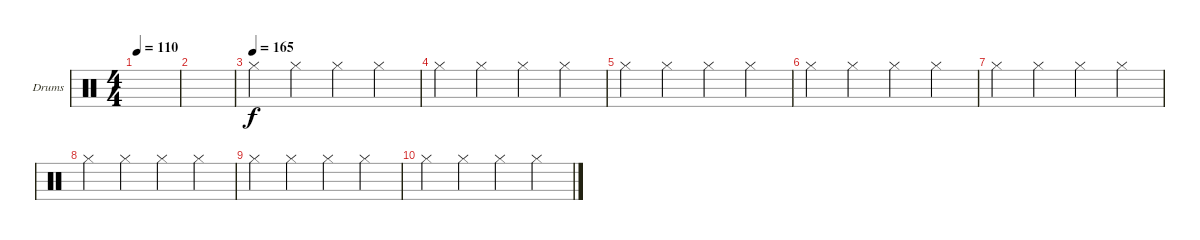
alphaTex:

\defaultSystemsLayout 4
\bracketExtendMode groupsimilarinstruments
\firstSystemTrackNameOrientation horizontal
\otherSystemsTrackNameOrientation horizontal
\track ("Drumkit" "Drums") {instrument percussion}
\staff {score}
\articulation defaults
\ts (4 4)
\tempo 110
\clef neutral
\ks c
|
|
\tempo (165)
"Hi-Hat (closed)".4 "Hi-Hat (closed)".4 "Hi-Hat (closed)".4 "Hi-Hat (closed)".4 |
"Hi-Hat (closed)".4 "Hi-Hat (closed)".4 "Hi-Hat (closed)".4 "Hi-Hat (closed)".4 |
"Hi-Hat (closed)".4 "Hi-Hat (closed)".4 "Hi-Hat (closed)".4 "Hi-Hat (closed)".4 |
"Hi-Hat (closed)".4 "Hi-Hat (closed)".4 "Hi-Hat (closed)".4 "Hi-Hat (closed)".4 |
"Hi-Hat (closed)".4 "Hi-Hat (closed)".4 "Hi-Hat (closed)".4 "Hi-Hat (closed)".4 |
"Hi-Hat (closed)".4 "Hi-Hat (closed)".4 "Hi-Hat (closed)".4 "Hi-Hat (closed)".4 |
"Hi-Hat (closed)".4 "Hi-Hat (closed)".4 "Hi-Hat (closed)".4 "Hi-Hat (closed)".4 |
"Hi-Hat (closed)".4 "Hi-Hat (closed)".4 "Hi-Hat (closed)".4 "Hi-Hat (closed)".4
